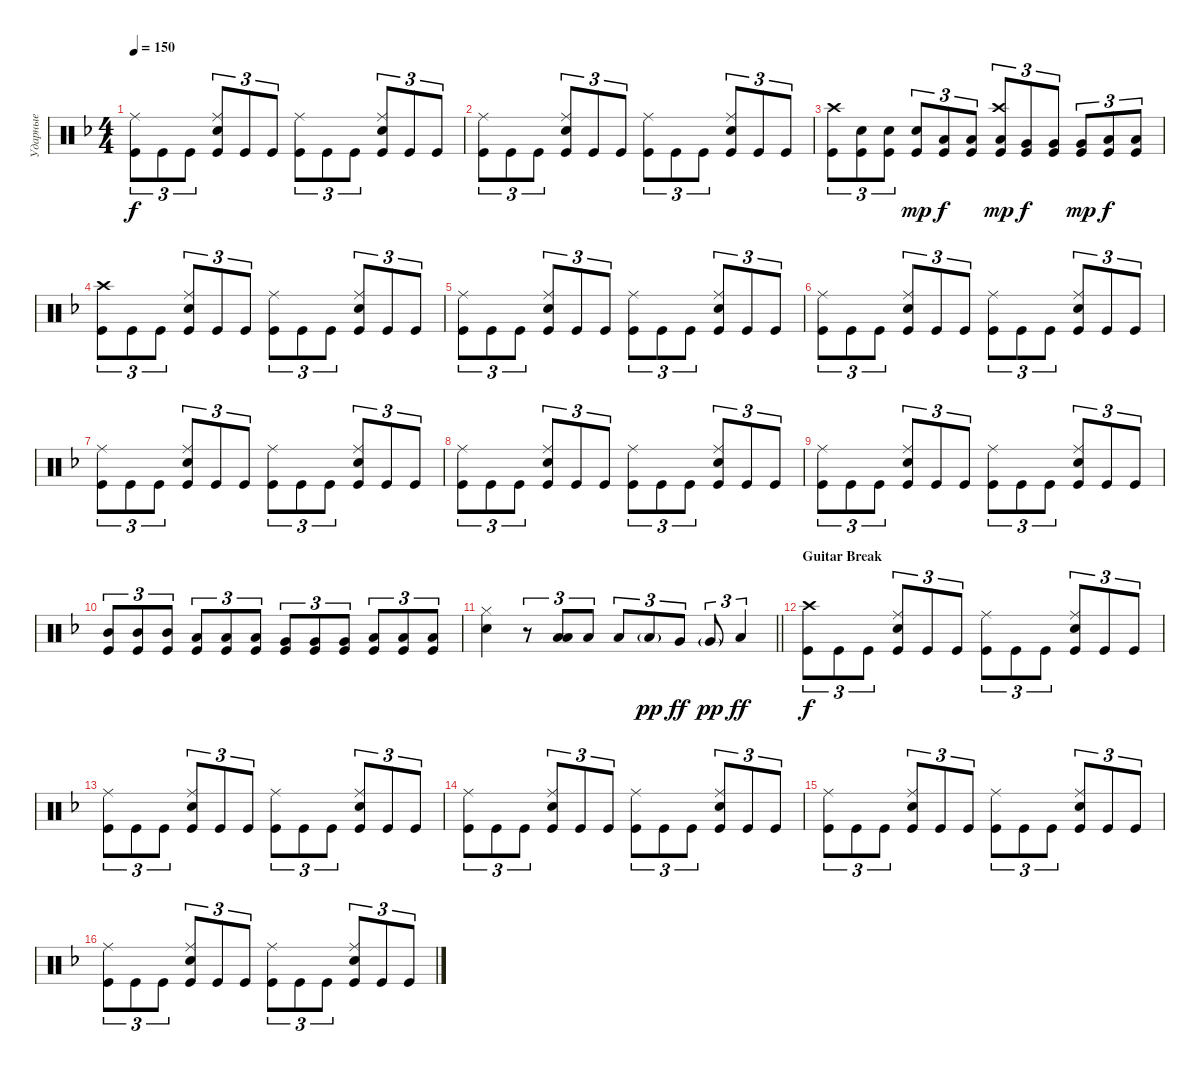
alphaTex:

\track ("Ударные" "Ударные") {instrument percussion}
\staff {score}
\articulation defaults
\ts (4 4)
\tempo 150
\clef neutral
\ks dminor
("Kick (hit)" "Ride (middle)").8{tu (3 2) dy f} "Kick (hit)".8{tu (3 2)} "Kick (hit)".8{tu (3 2)} ("Snare (hit) 2" "Kick (hit)" "Ride (middle)").8{tu (3 2)} "Kick (hit)".8{tu (3 2)} "Kick (hit)".8{tu (3 2)} ("Kick (hit)" "Ride (middle)").8{tu (3 2)} "Kick (hit)".8{tu (3 2)} "Kick (hit)".8{tu (3 2)} ("Kick (hit)" "Snare (hit) 2" "Ride (middle)").8{tu (3 2)} "Kick (hit)".8{tu (3 2)} "Kick (hit)".8{tu (3 2)} |
("Kick (hit)" "Ride (middle)").8{tu (3 2)} "Kick (hit)".8{tu (3 2)} "Kick (hit)".8{tu (3 2)} ("Snare (hit) 2" "Kick (hit)" "Ride (middle)").8{tu (3 2)} "Kick (hit)".8{tu (3 2)} "Kick (hit)".8{tu (3 2)} ("Kick (hit)" "Ride (middle)").8{tu (3 2)} "Kick (hit)".8{tu (3 2)} "Kick (hit)".8{tu (3 2)} ("Kick (hit)" "Snare (hit) 2" "Ride (middle)").8{tu (3 2)} "Kick (hit)".8{tu (3 2)} "Kick (hit)".8{tu (3 2)} |
("Kick (hit)" "Crash high (hit)").8{tu (3 2)} ("Snare (hit) 2" "Kick (hit)").8{tu (3 2)} ("Snare (hit) 2" "Kick (hit)").8{tu (3 2)} ("Snare (hit) 2" "Kick (hit)").8{tu (3 2) dy mp} ("Kick (hit)" "Low Tom (hit)").8{tu (3 2) dy f} ("Kick (hit)" "Low Tom (hit)").8{tu (3 2)} ("Kick (hit)" "Crash high (hit)" "Low Tom (hit)").8{tu (3 2) dy mp} ("Very Low Tom (hit)" "Kick (hit)").8{tu (3 2) dy f} ("Very Low Tom (hit)" "Kick (hit)").8{tu (3 2)} ("Very Low Tom (hit)" "Kick (hit)").8{tu (3 2) dy mp} ("Low Floor Tom (hit)" "Kick (hit)").8{tu (3 2) dy f} ("Low Floor Tom (hit)" "Kick (hit)").8{tu (3 2)} |
("Kick (hit)" "Crash high (hit)").8{tu (3 2)} "Kick (hit)".8{tu (3 2)} "Kick (hit)".8{tu (3 2)} ("Snare (hit) 2" "Kick (hit)" "Ride (middle)").8{tu (3 2)} "Kick (hit)".8{tu (3 2)} "Kick (hit)".8{tu (3 2)} ("Kick (hit)" "Ride (middle)").8{tu (3 2)} "Kick (hit)".8{tu (3 2)} "Kick (hit)".8{tu (3 2)} ("Kick (hit)" "Snare (hit) 2" "Ride (middle)").8{tu (3 2)} "Kick (hit)".8{tu (3 2)} "Kick (hit)".8{tu (3 2)} |
("Kick (hit)" "Ride (middle)").8{tu (3 2)} "Kick (hit)".8{tu (3 2)} "Kick (hit)".8{tu (3 2)} ("Snare (hit) 2" "Kick (hit)" "Ride (middle)").8{tu (3 2)} "Kick (hit)".8{tu (3 2)} "Kick (hit)".8{tu (3 2)} ("Kick (hit)" "Ride (middle)").8{tu (3 2)} "Kick (hit)".8{tu (3 2)} "Kick (hit)".8{tu (3 2)} ("Kick (hit)" "Snare (hit) 2" "Ride (middle)").8{tu (3 2)} "Kick (hit)".8{tu (3 2)} "Kick (hit)".8{tu (3 2)} |
("Kick (hit)" "Ride (middle)").8{tu (3 2)} "Kick (hit)".8{tu (3 2)} "Kick (hit)".8{tu (3 2)} ("Snare (hit) 2" "Kick (hit)" "Ride (middle)").8{tu (3 2)} "Kick (hit)".8{tu (3 2)} "Kick (hit)".8{tu (3 2)} ("Kick (hit)" "Ride (middle)").8{tu (3 2)} "Kick (hit)".8{tu (3 2)} "Kick (hit)".8{tu (3 2)} ("Kick (hit)" "Snare (hit) 2" "Ride (middle)").8{tu (3 2)} "Kick (hit)".8{tu (3 2)} "Kick (hit)".8{tu (3 2)} |
("Kick (hit)" "Ride (middle)").8{tu (3 2)} "Kick (hit)".8{tu (3 2)} "Kick (hit)".8{tu (3 2)} ("Snare (hit) 2" "Kick (hit)" "Ride (middle)").8{tu (3 2)} "Kick (hit)".8{tu (3 2)} "Kick (hit)".8{tu (3 2)} ("Kick (hit)" "Ride (middle)").8{tu (3 2)} "Kick (hit)".8{tu (3 2)} "Kick (hit)".8{tu (3 2)} ("Kick (hit)" "Snare (hit) 2" "Ride (middle)").8{tu (3 2)} "Kick (hit)".8{tu (3 2)} "Kick (hit)".8{tu (3 2)} |
("Kick (hit)" "Ride (middle)").8{tu (3 2)} "Kick (hit)".8{tu (3 2)} "Kick (hit)".8{tu (3 2)} ("Snare (hit) 2" "Kick (hit)" "Ride (middle)").8{tu (3 2)} "Kick (hit)".8{tu (3 2)} "Kick (hit)".8{tu (3 2)} ("Kick (hit)" "Ride (middle)").8{tu (3 2)} "Kick (hit)".8{tu (3 2)} "Kick (hit)".8{tu (3 2)} ("Kick (hit)" "Snare (hit) 2" "Ride (middle)").8{tu (3 2)} "Kick (hit)".8{tu (3 2)} "Kick (hit)".8{tu (3 2)} |
("Kick (hit)" "Ride (middle)").8{tu (3 2)} "Kick (hit)".8{tu (3 2)} "Kick (hit)".8{tu (3 2)} ("Snare (hit) 2" "Kick (hit)" "Ride (middle)").8{tu (3 2)} "Kick (hit)".8{tu (3 2)} "Kick (hit)".8{tu (3 2)} ("Kick (hit)" "Ride (middle)").8{tu (3 2)} "Kick (hit)".8{tu (3 2)} "Kick (hit)".8{tu (3 2)} ("Kick (hit)" "Snare (hit) 2" "Ride (middle)").8{tu (3 2)} "Kick (hit)".8{tu (3 2)} "Kick (hit)".8{tu (3 2)} |
("Mid Tom (hit)" "Kick (hit)").8{tu (3 2)} ("Mid Tom (hit)" "Kick (hit)").8{tu (3 2)} ("Mid Tom (hit)" "Kick (hit)").8{tu (3 2)} ("Low Tom (hit)" "Kick (hit)").8{tu (3 2)} ("Low Tom (hit)" "Kick (hit)").8{tu (3 2)} ("Low Tom (hit)" "Kick (hit)").8{tu (3 2)} ("Very Low Tom (hit)" "Kick (hit)").8{tu (3 2)} ("Kick (hit)" "Very Low Tom (hit)").8{tu (3 2)} ("Very Low Tom (hit)" "Kick (hit)").8{tu (3 2)} ("Low Floor Tom (hit)" "Kick (hit)").8{tu (3 2)} ("Low Floor Tom (hit)" "Kick (hit)").8{tu (3 2)} ("Low Floor Tom (hit)" "Kick (hit)").8{tu (3 2)} |
\barLineRight lightlight
("Snare (hit) 2" "Hi-Hat (closed)").4 r.8{tu (3 2)} ("Low Tom (hit)" "Low Tom (hit)").8{tu (3 2) bd 60} "Low Tom (hit)".8{tu (3 2)} "Low Tom (hit)".8{tu (3 2)} "Low Tom (hit)"{g}.8{tu (3 2) dy pp} "Very Low Tom (hit)".8{tu (3 2) dy ff} "Very Low Tom (hit)"{g}.8{tu (3 2) dy pp} "Low Floor Tom (hit)".4{tu (3 2) dy ff} |
\section ("" "Guitar Break")
("Kick (hit)" "Crash high (hit)").8{tu (3 2) dy f} "Kick (hit)".8{tu (3 2)} "Kick (hit)".8{tu (3 2)} ("Snare (hit) 2" "Kick (hit)" "Ride (middle)").8{tu (3 2)} "Kick (hit)".8{tu (3 2)} "Kick (hit)".8{tu (3 2)} ("Kick (hit)" "Ride (middle)").8{tu (3 2)} "Kick (hit)".8{tu (3 2)} "Kick (hit)".8{tu (3 2)} ("Kick (hit)" "Snare (hit) 2" "Ride (middle)").8{tu (3 2)} "Kick (hit)".8{tu (3 2)} "Kick (hit)".8{tu (3 2)} |
("Kick (hit)" "Ride (middle)").8{tu (3 2)} "Kick (hit)".8{tu (3 2)} "Kick (hit)".8{tu (3 2)} ("Snare (hit) 2" "Kick (hit)" "Ride (middle)").8{tu (3 2)} "Kick (hit)".8{tu (3 2)} "Kick (hit)".8{tu (3 2)} ("Kick (hit)" "Ride (middle)").8{tu (3 2)} "Kick (hit)".8{tu (3 2)} "Kick (hit)".8{tu (3 2)} ("Kick (hit)" "Snare (hit) 2" "Ride (middle)").8{tu (3 2)} "Kick (hit)".8{tu (3 2)} "Kick (hit)".8{tu (3 2)} |
("Kick (hit)" "Ride (middle)").8{tu (3 2)} "Kick (hit)".8{tu (3 2)} "Kick (hit)".8{tu (3 2)} ("Snare (hit) 2" "Kick (hit)" "Ride (middle)").8{tu (3 2)} "Kick (hit)".8{tu (3 2)} "Kick (hit)".8{tu (3 2)} ("Kick (hit)" "Ride (middle)").8{tu (3 2)} "Kick (hit)".8{tu (3 2)} "Kick (hit)".8{tu (3 2)} ("Kick (hit)" "Snare (hit) 2" "Ride (middle)").8{tu (3 2)} "Kick (hit)".8{tu (3 2)} "Kick (hit)".8{tu (3 2)} |
("Kick (hit)" "Ride (middle)").8{tu (3 2)} "Kick (hit)".8{tu (3 2)} "Kick (hit)".8{tu (3 2)} ("Snare (hit) 2" "Kick (hit)" "Ride (middle)").8{tu (3 2)} "Kick (hit)".8{tu (3 2)} "Kick (hit)".8{tu (3 2)} ("Kick (hit)" "Ride (middle)").8{tu (3 2)} "Kick (hit)".8{tu (3 2)} "Kick (hit)".8{tu (3 2)} ("Kick (hit)" "Snare (hit) 2" "Ride (middle)").8{tu (3 2)} "Kick (hit)".8{tu (3 2)} "Kick (hit)".8{tu (3 2)} |
("Kick (hit)" "Ride (middle)").8{tu (3 2)} "Kick (hit)".8{tu (3 2)} "Kick (hit)".8{tu (3 2)} ("Snare (hit) 2" "Kick (hit)" "Ride (middle)").8{tu (3 2)} "Kick (hit)".8{tu (3 2)} "Kick (hit)".8{tu (3 2)} ("Kick (hit)" "Ride (middle)").8{tu (3 2)} "Kick (hit)".8{tu (3 2)} "Kick (hit)".8{tu (3 2)} ("Kick (hit)" "Snare (hit) 2" "Ride (middle)").8{tu (3 2)} "Kick (hit)".8{tu (3 2)} "Kick (hit)".8{tu (3 2)}
